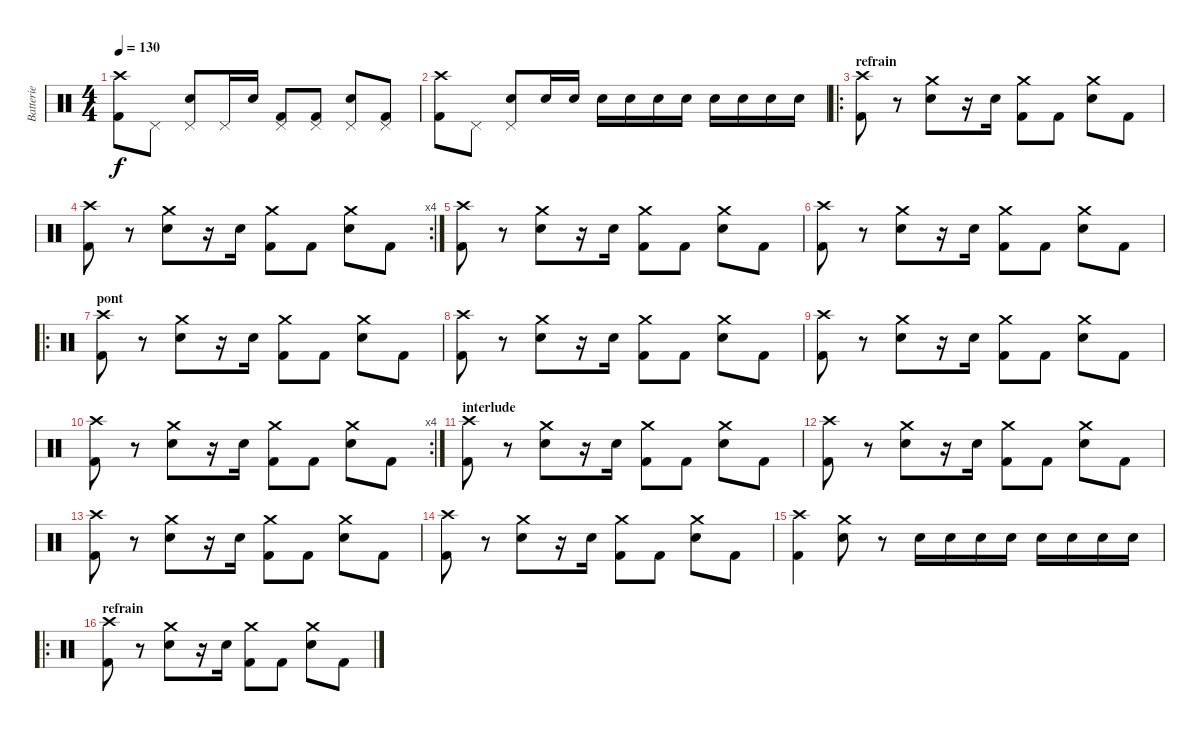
\track ("Batterie" "Batterie") {instrument percussion}
\staff {score}
\articulation defaults
\ts (4 4)
\tempo 130
\clef neutral
\ks c
("Crash high (hit)" "Kick (hit) 2").8{dy f} "Pedal Hi-Hat (hit)".8 ("Pedal Hi-Hat (hit)" "Electric Snare (hit)").8 "Pedal Hi-Hat (hit)".16 "Electric Snare (hit)".16 ("Pedal Hi-Hat (hit)" "Kick (hit) 2").8 ("Pedal Hi-Hat (hit)" "Kick (hit) 2").8 ("Pedal Hi-Hat (hit)" "Electric Snare (hit)").8 ("Pedal Hi-Hat (hit)" "Kick (hit) 2").8 |
("Crash high (hit)" "Kick (hit) 2").8 "Pedal Hi-Hat (hit)".8 ("Electric Snare (hit)" "Pedal Hi-Hat (hit)").8 "Electric Snare (hit)".16 "Electric Snare (hit)".16 "Electric Snare (hit)".16 "Electric Snare (hit)".16 "Electric Snare (hit)".16 "Electric Snare (hit)".16 "Electric Snare (hit)".16 "Electric Snare (hit)".16 "Electric Snare (hit)".16 "Electric Snare (hit)".16 |
\ro
\section ("" "refrain")
("Crash high (hit)" "Kick (hit) 2").8 r.8 ("Crash medium (hit)" "Electric Snare (hit)").8 r.16 "Electric Snare (hit)".16 ("Crash medium (hit)" "Kick (hit) 2").8 "Kick (hit) 2".8 ("Crash medium (hit)" "Electric Snare (hit)").8 "Kick (hit) 2".8 |
\rc 4
("Crash high (hit)" "Kick (hit) 2").8 r.8 ("Crash medium (hit)" "Electric Snare (hit)").8 r.16 "Electric Snare (hit)".16 ("Crash medium (hit)" "Kick (hit) 2").8 "Kick (hit) 2".8 ("Crash medium (hit)" "Electric Snare (hit)").8 "Kick (hit) 2".8 |
("Crash high (hit)" "Kick (hit) 2").8 r.8 ("Crash medium (hit)" "Electric Snare (hit)").8 r.16 "Electric Snare (hit)".16 ("Crash medium (hit)" "Kick (hit) 2").8 "Kick (hit) 2".8 ("Crash medium (hit)" "Electric Snare (hit)").8 "Kick (hit) 2".8 |
("Crash high (hit)" "Kick (hit) 2").8 r.8 ("Crash medium (hit)" "Electric Snare (hit)").8 r.16 "Electric Snare (hit)".16 ("Crash medium (hit)" "Kick (hit) 2").8 "Kick (hit) 2".8 ("Crash medium (hit)" "Electric Snare (hit)").8 "Kick (hit) 2".8 |
\ro
\section ("" "pont")
("Crash high (hit)" "Kick (hit) 2").8 r.8 ("Crash medium (hit)" "Electric Snare (hit)").8 r.16 "Electric Snare (hit)".16 ("Crash medium (hit)" "Kick (hit) 2").8 "Kick (hit) 2".8 ("Crash medium (hit)" "Electric Snare (hit)").8 "Kick (hit) 2".8 |
("Crash high (hit)" "Kick (hit) 2").8 r.8 ("Crash medium (hit)" "Electric Snare (hit)").8 r.16 "Electric Snare (hit)".16 ("Crash medium (hit)" "Kick (hit) 2").8 "Kick (hit) 2".8 ("Crash medium (hit)" "Electric Snare (hit)").8 "Kick (hit) 2".8 |
("Crash high (hit)" "Kick (hit) 2").8 r.8 ("Crash medium (hit)" "Electric Snare (hit)").8 r.16 "Electric Snare (hit)".16 ("Crash medium (hit)" "Kick (hit) 2").8 "Kick (hit) 2".8 ("Crash medium (hit)" "Electric Snare (hit)").8 "Kick (hit) 2".8 |
\rc 4
("Crash high (hit)" "Kick (hit) 2").8 r.8 ("Crash medium (hit)" "Electric Snare (hit)").8 r.16 "Electric Snare (hit)".16 ("Crash medium (hit)" "Kick (hit) 2").8 "Kick (hit) 2".8 ("Crash medium (hit)" "Electric Snare (hit)").8 "Kick (hit) 2".8 |
\section ("" "interlude")
("Crash high (hit)" "Kick (hit) 2").8 r.8 ("Crash medium (hit)" "Electric Snare (hit)").8 r.16 "Electric Snare (hit)".16 ("Crash medium (hit)" "Kick (hit) 2").8 "Kick (hit) 2".8 ("Crash medium (hit)" "Electric Snare (hit)").8 "Kick (hit) 2".8 |
("Crash high (hit)" "Kick (hit) 2").8 r.8 ("Crash medium (hit)" "Electric Snare (hit)").8 r.16 "Electric Snare (hit)".16 ("Crash medium (hit)" "Kick (hit) 2").8 "Kick (hit) 2".8 ("Crash medium (hit)" "Electric Snare (hit)").8 "Kick (hit) 2".8 |
("Crash high (hit)" "Kick (hit) 2").8 r.8 ("Crash medium (hit)" "Electric Snare (hit)").8 r.16 "Electric Snare (hit)".16 ("Crash medium (hit)" "Kick (hit) 2").8 "Kick (hit) 2".8 ("Crash medium (hit)" "Electric Snare (hit)").8 "Kick (hit) 2".8 |
("Crash high (hit)" "Kick (hit) 2").8 r.8 ("Crash medium (hit)" "Electric Snare (hit)").8 r.16 "Electric Snare (hit)".16 ("Crash medium (hit)" "Kick (hit) 2").8 "Kick (hit) 2".8 ("Crash medium (hit)" "Electric Snare (hit)").8 "Kick (hit) 2".8 |
("Crash high (hit)" "Kick (hit) 2").4 ("Crash medium (hit)" "Electric Snare (hit)").8 r.8 "Electric Snare (hit)".16 "Electric Snare (hit)".16 "Electric Snare (hit)".16 "Electric Snare (hit)".16 "Electric Snare (hit)".16 "Electric Snare (hit)".16 "Electric Snare (hit)".16 "Electric Snare (hit)".16 |
\ro
\section ("" "refrain")
("Crash high (hit)" "Kick (hit) 2").8 r.8 ("Crash medium (hit)" "Electric Snare (hit)").8 r.16 "Electric Snare (hit)".16 ("Crash medium (hit)" "Kick (hit) 2").8 "Kick (hit) 2".8 ("Crash medium (hit)" "Electric Snare (hit)").8 "Kick (hit) 2".8
